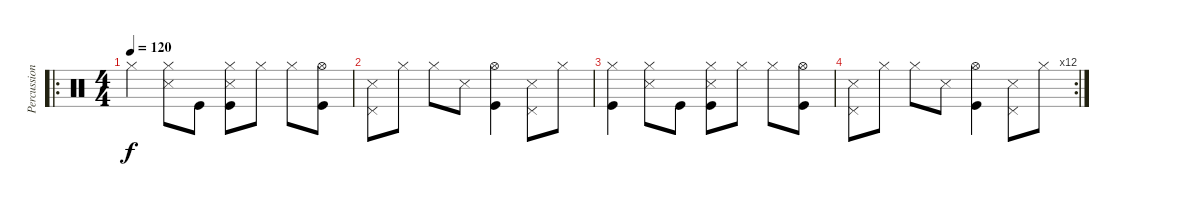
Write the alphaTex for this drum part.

\track ("Percussion" "Percussion") {instrument percussion}
\staff {score}
\articulation defaults
\ro
\ts (4 4)
\tempo 120
\clef neutral
\ks c "Hi-Hat (closed)".4{dy f}
("Hi-Hat (closed)" "Snare (side stick) 3").8 "Kick (hit)".8 ("Hi-Hat (closed)" "Snare (side stick) 3" "Kick (hit)").8 "Hi-Hat (closed)".8 "Hi-Hat (closed)".8 ("Hi-Hat (open)" "Kick (hit)").8 |
("Pedal Hi-Hat (hit)" "Snare (side stick) 3").8 "Hi-Hat (closed)".8 "Hi-Hat (closed)".8 "Snare (side stick) 3".8 ("Hi-Hat (open)" "Kick (hit)").4 ("Pedal Hi-Hat (hit)" "Snare (side stick) 3").8 "Hi-Hat (closed)".8 |
("Hi-Hat (closed)" "Kick (hit)").4 ("Hi-Hat (closed)" "Snare (side stick) 3").8 "Kick (hit)".8 ("Hi-Hat (closed)" "Snare (side stick) 3" "Kick (hit)").8 "Hi-Hat (closed)".8 "Hi-Hat (closed)".8 ("Hi-Hat (open)" "Kick (hit)").8 |
\rc 12
("Pedal Hi-Hat (hit)" "Snare (side stick) 3").8 "Hi-Hat (closed)".8 "Hi-Hat (closed)".8 "Snare (side stick) 3".8 ("Hi-Hat (open)" "Kick (hit)").4 ("Pedal Hi-Hat (hit)" "Snare (side stick) 3").8 "Hi-Hat (closed)".8
